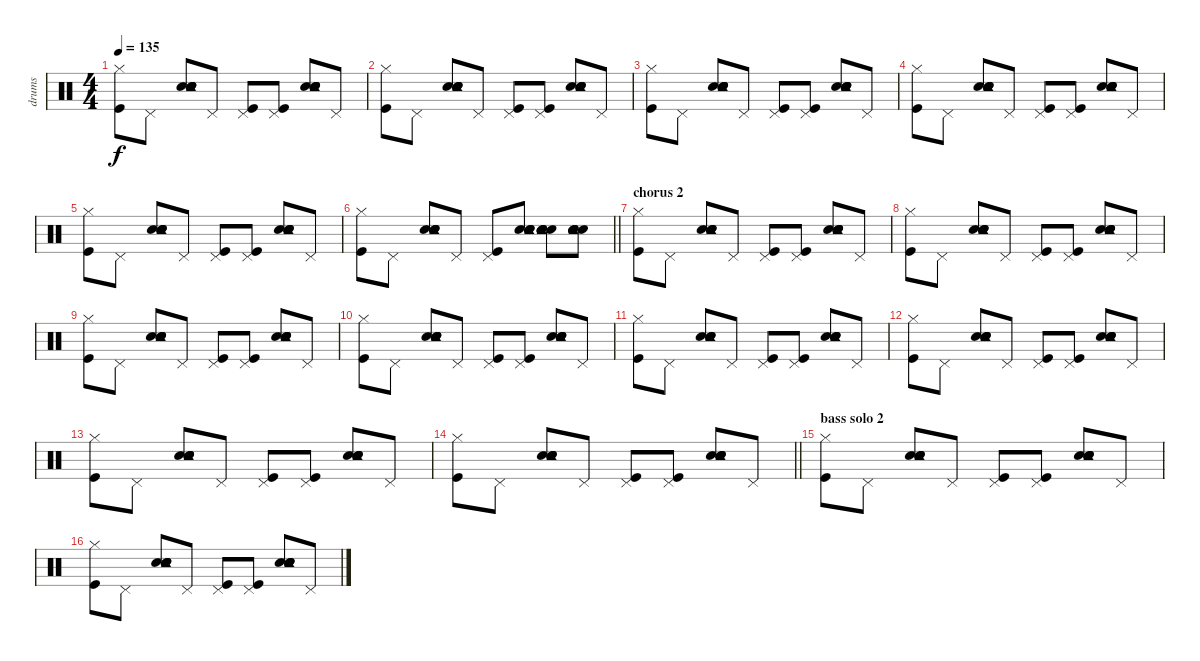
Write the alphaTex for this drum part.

\track ("drums" "drums") {instrument percussion}
\staff {score}
\articulation defaults
\ts (4 4)
\tempo 135
\clef neutral
\ks c
("Kick (hit)" "Hi-Hat (closed)").8{dy f} "Pedal Hi-Hat (hit)".8 ("Snare (hit) 2" "Snare (hit) 2" "Electric Snare (hit)" "Electric Snare (hit)" "Tambourine (hit)").8 "Pedal Hi-Hat (hit)".8 ("Kick (hit)" "Pedal Hi-Hat (hit)").8 ("Kick (hit)" "Pedal Hi-Hat (hit)").8 ("Snare (hit) 2" "Snare (hit) 2" "Electric Snare (hit)" "Electric Snare (hit)" "Tambourine (hit)").8 "Pedal Hi-Hat (hit)".8 |
("Kick (hit)" "Hi-Hat (closed)").8 "Pedal Hi-Hat (hit)".8 ("Snare (hit) 2" "Snare (hit) 2" "Electric Snare (hit)" "Electric Snare (hit)" "Tambourine (hit)").8 "Pedal Hi-Hat (hit)".8 ("Kick (hit)" "Pedal Hi-Hat (hit)").8 ("Kick (hit)" "Pedal Hi-Hat (hit)").8 ("Snare (hit) 2" "Snare (hit) 2" "Electric Snare (hit)" "Electric Snare (hit)" "Tambourine (hit)").8 "Pedal Hi-Hat (hit)".8 |
("Kick (hit)" "Hi-Hat (closed)").8 "Pedal Hi-Hat (hit)".8 ("Snare (hit) 2" "Snare (hit) 2" "Electric Snare (hit)" "Electric Snare (hit)" "Tambourine (hit)").8 "Pedal Hi-Hat (hit)".8 ("Kick (hit)" "Pedal Hi-Hat (hit)").8 ("Kick (hit)" "Pedal Hi-Hat (hit)").8 ("Snare (hit) 2" "Snare (hit) 2" "Electric Snare (hit)" "Electric Snare (hit)" "Tambourine (hit)").8 "Pedal Hi-Hat (hit)".8 |
("Kick (hit)" "Hi-Hat (closed)").8 "Pedal Hi-Hat (hit)".8 ("Snare (hit) 2" "Snare (hit) 2" "Electric Snare (hit)" "Electric Snare (hit)" "Tambourine (hit)").8 "Pedal Hi-Hat (hit)".8 ("Kick (hit)" "Pedal Hi-Hat (hit)").8 ("Kick (hit)" "Pedal Hi-Hat (hit)").8 ("Snare (hit) 2" "Snare (hit) 2" "Electric Snare (hit)" "Electric Snare (hit)" "Tambourine (hit)").8 "Pedal Hi-Hat (hit)".8 |
("Kick (hit)" "Hi-Hat (closed)").8 "Pedal Hi-Hat (hit)".8 ("Snare (hit) 2" "Snare (hit) 2" "Electric Snare (hit)" "Electric Snare (hit)" "Tambourine (hit)").8 "Pedal Hi-Hat (hit)".8 ("Kick (hit)" "Pedal Hi-Hat (hit)").8 ("Kick (hit)" "Pedal Hi-Hat (hit)").8 ("Snare (hit) 2" "Snare (hit) 2" "Electric Snare (hit)" "Electric Snare (hit)" "Tambourine (hit)").8 "Pedal Hi-Hat (hit)".8 |
\barLineRight lightlight
("Kick (hit)" "Hi-Hat (closed)").8 "Pedal Hi-Hat (hit)".8 ("Snare (hit) 2" "Snare (hit) 2" "Electric Snare (hit)" "Electric Snare (hit)" "Tambourine (hit)").8 "Pedal Hi-Hat (hit)".8 ("Kick (hit)" "Pedal Hi-Hat (hit)").8 ("Snare (hit) 2" "Snare (hit) 2" "Electric Snare (hit)" "Electric Snare (hit)" "Tambourine (hit)").8 ("Snare (hit) 2" "Snare (hit) 2" "Electric Snare (hit)" "Electric Snare (hit)" "Tambourine (hit)").8 ("Snare (hit) 2" "Snare (hit) 2" "Electric Snare (hit)" "Electric Snare (hit)" "Tambourine (hit)").8 |
\section ("" "chorus 2")
("Kick (hit)" "Hi-Hat (closed)").8 "Pedal Hi-Hat (hit)".8 ("Snare (hit) 2" "Snare (hit) 2" "Electric Snare (hit)" "Electric Snare (hit)" "Tambourine (hit)").8 "Pedal Hi-Hat (hit)".8 ("Kick (hit)" "Pedal Hi-Hat (hit)").8 ("Kick (hit)" "Pedal Hi-Hat (hit)").8 ("Snare (hit) 2" "Snare (hit) 2" "Electric Snare (hit)" "Electric Snare (hit)" "Tambourine (hit)").8 "Pedal Hi-Hat (hit)".8 |
("Kick (hit)" "Hi-Hat (closed)").8 "Pedal Hi-Hat (hit)".8 ("Snare (hit) 2" "Snare (hit) 2" "Electric Snare (hit)" "Electric Snare (hit)" "Tambourine (hit)").8 "Pedal Hi-Hat (hit)".8 ("Kick (hit)" "Pedal Hi-Hat (hit)").8 ("Kick (hit)" "Pedal Hi-Hat (hit)").8 ("Snare (hit) 2" "Snare (hit) 2" "Electric Snare (hit)" "Electric Snare (hit)" "Tambourine (hit)").8 "Pedal Hi-Hat (hit)".8 |
("Kick (hit)" "Hi-Hat (closed)").8 "Pedal Hi-Hat (hit)".8 ("Snare (hit) 2" "Snare (hit) 2" "Electric Snare (hit)" "Electric Snare (hit)" "Tambourine (hit)").8 "Pedal Hi-Hat (hit)".8 ("Kick (hit)" "Pedal Hi-Hat (hit)").8 ("Kick (hit)" "Pedal Hi-Hat (hit)").8 ("Snare (hit) 2" "Snare (hit) 2" "Electric Snare (hit)" "Electric Snare (hit)" "Tambourine (hit)").8 "Pedal Hi-Hat (hit)".8 |
("Kick (hit)" "Hi-Hat (closed)").8 "Pedal Hi-Hat (hit)".8 ("Snare (hit) 2" "Snare (hit) 2" "Electric Snare (hit)" "Electric Snare (hit)" "Tambourine (hit)").8 "Pedal Hi-Hat (hit)".8 ("Kick (hit)" "Pedal Hi-Hat (hit)").8 ("Kick (hit)" "Pedal Hi-Hat (hit)").8 ("Snare (hit) 2" "Snare (hit) 2" "Electric Snare (hit)" "Electric Snare (hit)" "Tambourine (hit)").8 "Pedal Hi-Hat (hit)".8 |
("Kick (hit)" "Hi-Hat (closed)").8 "Pedal Hi-Hat (hit)".8 ("Snare (hit) 2" "Snare (hit) 2" "Electric Snare (hit)" "Electric Snare (hit)" "Tambourine (hit)").8 "Pedal Hi-Hat (hit)".8 ("Kick (hit)" "Pedal Hi-Hat (hit)").8 ("Kick (hit)" "Pedal Hi-Hat (hit)").8 ("Snare (hit) 2" "Snare (hit) 2" "Electric Snare (hit)" "Electric Snare (hit)" "Tambourine (hit)").8 "Pedal Hi-Hat (hit)".8 |
("Kick (hit)" "Hi-Hat (closed)").8 "Pedal Hi-Hat (hit)".8 ("Snare (hit) 2" "Snare (hit) 2" "Electric Snare (hit)" "Electric Snare (hit)" "Tambourine (hit)").8 "Pedal Hi-Hat (hit)".8 ("Kick (hit)" "Pedal Hi-Hat (hit)").8 ("Kick (hit)" "Pedal Hi-Hat (hit)").8 ("Snare (hit) 2" "Snare (hit) 2" "Electric Snare (hit)" "Electric Snare (hit)" "Tambourine (hit)").8 "Pedal Hi-Hat (hit)".8 |
("Kick (hit)" "Hi-Hat (closed)").8 "Pedal Hi-Hat (hit)".8 ("Snare (hit) 2" "Snare (hit) 2" "Electric Snare (hit)" "Electric Snare (hit)" "Tambourine (hit)").8 "Pedal Hi-Hat (hit)".8 ("Kick (hit)" "Pedal Hi-Hat (hit)").8 ("Kick (hit)" "Pedal Hi-Hat (hit)").8 ("Snare (hit) 2" "Snare (hit) 2" "Electric Snare (hit)" "Electric Snare (hit)" "Tambourine (hit)").8 "Pedal Hi-Hat (hit)".8 |
\barLineRight lightlight
("Kick (hit)" "Hi-Hat (closed)").8 "Pedal Hi-Hat (hit)".8 ("Snare (hit) 2" "Snare (hit) 2" "Electric Snare (hit)" "Electric Snare (hit)" "Tambourine (hit)").8 "Pedal Hi-Hat (hit)".8 ("Kick (hit)" "Pedal Hi-Hat (hit)").8 ("Kick (hit)" "Pedal Hi-Hat (hit)").8 ("Snare (hit) 2" "Snare (hit) 2" "Electric Snare (hit)" "Electric Snare (hit)" "Tambourine (hit)").8 "Pedal Hi-Hat (hit)".8 |
\section ("" "bass solo 2")
("Kick (hit)" "Hi-Hat (closed)").8 "Pedal Hi-Hat (hit)".8 ("Snare (hit) 2" "Snare (hit) 2" "Electric Snare (hit)" "Electric Snare (hit)" "Tambourine (hit)").8 "Pedal Hi-Hat (hit)".8 ("Kick (hit)" "Pedal Hi-Hat (hit)").8 ("Kick (hit)" "Pedal Hi-Hat (hit)").8 ("Snare (hit) 2" "Snare (hit) 2" "Electric Snare (hit)" "Electric Snare (hit)" "Tambourine (hit)").8 "Pedal Hi-Hat (hit)".8 |
("Kick (hit)" "Hi-Hat (closed)").8 "Pedal Hi-Hat (hit)".8 ("Snare (hit) 2" "Snare (hit) 2" "Electric Snare (hit)" "Electric Snare (hit)" "Tambourine (hit)").8 "Pedal Hi-Hat (hit)".8 ("Kick (hit)" "Pedal Hi-Hat (hit)").8 ("Kick (hit)" "Pedal Hi-Hat (hit)").8 ("Snare (hit) 2" "Snare (hit) 2" "Electric Snare (hit)" "Electric Snare (hit)" "Tambourine (hit)").8 "Pedal Hi-Hat (hit)".8
